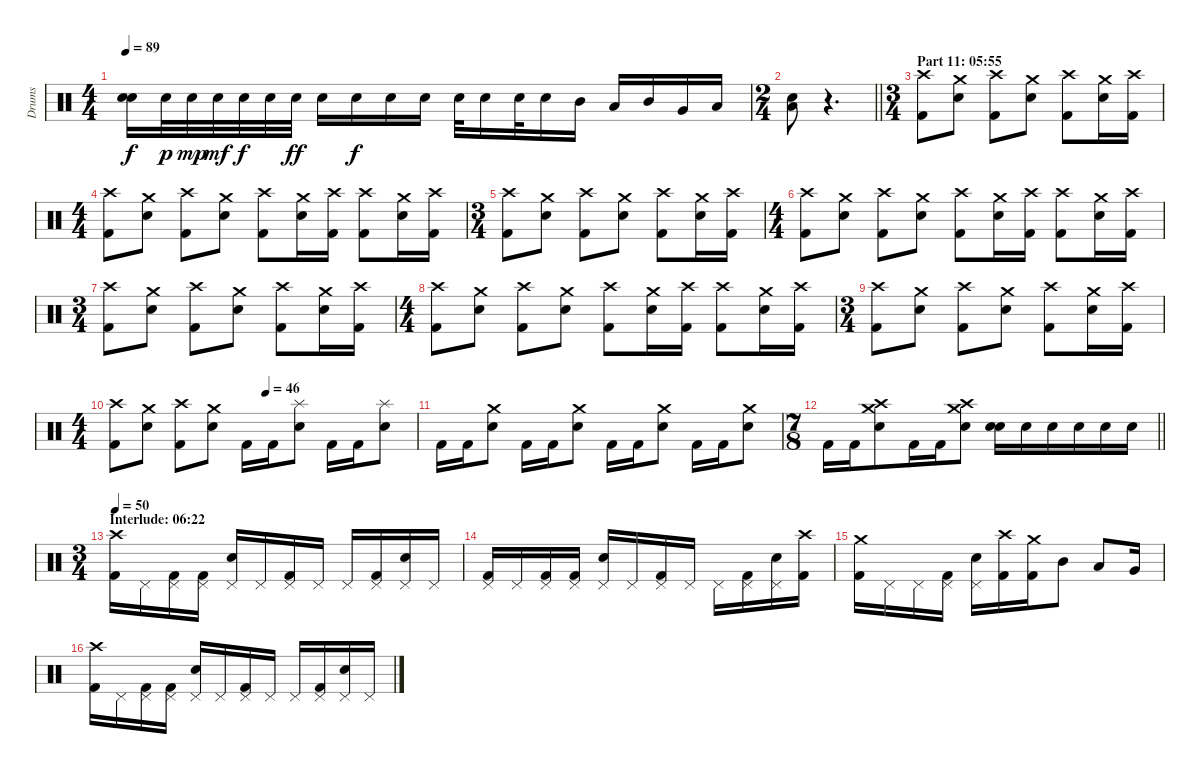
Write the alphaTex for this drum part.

\track ("Drums" "Drums") {instrument percussion}
\staff {score}
\articulation defaults
\ts (4 4)
\tempo 89
\clef neutral
\ks c
("Electric Snare (hit)" "Electric Snare (hit)").16{bd 30 dy f} "Electric Snare (hit)".32{dy p} "Electric Snare (hit)".32{dy mp} "Electric Snare (hit)".32{dy mf} "Electric Snare (hit)".32{dy f} "Electric Snare (hit)".32 "Electric Snare (hit)".32{dy ff} "Electric Snare (hit)".16 "Electric Snare (hit)".16{dy f} "Electric Snare (hit)".16 "Electric Snare (hit)".16 "Electric Snare (hit)".32 "Electric Snare (hit)".16 "Electric Snare (hit)".32 "Electric Snare (hit)".16 "Mid Tom (hit)".16 "Low Tom (hit)".16 "Mid Tom (hit)".16 "Very Low Tom (hit)".16 "Low Floor Tom (hit)".16 |
\ts (2 4)
\barLineRight lightlight
("Electric Snare (hit)" "Low Floor Tom (hit)").8 r.4{d} |
\ts (3 4)
\section ("" "Part 11: 05:55")
("Crash high (hit)" "Kick (hit) 2").8 ("Crash medium (hit)" "Electric Snare (hit)").8 ("Crash high (hit)" "Kick (hit) 2").8 ("Crash medium (hit)" "Electric Snare (hit)").8 ("Crash high (hit)" "Kick (hit) 2").8 ("Crash medium (hit)" "Electric Snare (hit)").16 ("Crash high (hit)" "Kick (hit) 2").16 |
\ts (4 4)
("Crash high (hit)" "Kick (hit) 2").8 ("Crash medium (hit)" "Electric Snare (hit)").8 ("Crash high (hit)" "Kick (hit) 2").8 ("Crash medium (hit)" "Electric Snare (hit)").8 ("Crash high (hit)" "Kick (hit) 2").8 ("Crash medium (hit)" "Electric Snare (hit)").16 ("Crash high (hit)" "Kick (hit) 2").16 ("Crash high (hit)" "Kick (hit) 2").8 ("Crash medium (hit)" "Electric Snare (hit)").16 ("Crash high (hit)" "Kick (hit) 2").16 |
\ts (3 4)
("Crash high (hit)" "Kick (hit) 2").8 ("Crash medium (hit)" "Electric Snare (hit)").8 ("Crash high (hit)" "Kick (hit) 2").8 ("Crash medium (hit)" "Electric Snare (hit)").8 ("Crash high (hit)" "Kick (hit) 2").8 ("Crash medium (hit)" "Electric Snare (hit)").16 ("Crash high (hit)" "Kick (hit) 2").16 |
\ts (4 4)
("Crash high (hit)" "Kick (hit) 2").8 ("Crash medium (hit)" "Electric Snare (hit)").8 ("Crash high (hit)" "Kick (hit) 2").8 ("Crash medium (hit)" "Electric Snare (hit)").8 ("Crash high (hit)" "Kick (hit) 2").8 ("Crash medium (hit)" "Electric Snare (hit)").16 ("Crash high (hit)" "Kick (hit) 2").16 ("Crash high (hit)" "Kick (hit) 2").8 ("Crash medium (hit)" "Electric Snare (hit)").16 ("Crash high (hit)" "Kick (hit) 2").16 |
\ts (3 4)
("Crash high (hit)" "Kick (hit) 2").8 ("Crash medium (hit)" "Electric Snare (hit)").8 ("Crash high (hit)" "Kick (hit) 2").8 ("Crash medium (hit)" "Electric Snare (hit)").8 ("Crash high (hit)" "Kick (hit) 2").8 ("Crash medium (hit)" "Electric Snare (hit)").16 ("Crash high (hit)" "Kick (hit) 2").16 |
\ts (4 4)
("Crash high (hit)" "Kick (hit) 2").8 ("Crash medium (hit)" "Electric Snare (hit)").8 ("Crash high (hit)" "Kick (hit) 2").8 ("Crash medium (hit)" "Electric Snare (hit)").8 ("Crash high (hit)" "Kick (hit) 2").8 ("Crash medium (hit)" "Electric Snare (hit)").16 ("Crash high (hit)" "Kick (hit) 2").16 ("Crash high (hit)" "Kick (hit) 2").8 ("Crash medium (hit)" "Electric Snare (hit)").16 ("Crash high (hit)" "Kick (hit) 2").16 |
\ts (3 4)
("Crash high (hit)" "Kick (hit) 2").8 ("Crash medium (hit)" "Electric Snare (hit)").8 ("Crash high (hit)" "Kick (hit) 2").8 ("Crash medium (hit)" "Electric Snare (hit)").8 ("Crash high (hit)" "Kick (hit) 2").8 ("Crash medium (hit)" "Electric Snare (hit)").16 ("Crash high (hit)" "Kick (hit) 2").16 |
\ts (4 4)
\tempo (46 0.5)
("Crash high (hit)" "Kick (hit) 2").8 ("Crash medium (hit)" "Electric Snare (hit)").8 ("Crash high (hit)" "Kick (hit) 2").8 ("Crash medium (hit)" "Electric Snare (hit)").8 "Kick (hit) 2".16 "Kick (hit) 2".16 ("Splash (hit)" "Electric Snare (hit)").8 "Kick (hit) 2".16 "Kick (hit) 2".16 ("Splash (hit)" "Electric Snare (hit)").8 |
"Kick (hit) 2".16 "Kick (hit) 2".16 ("Crash medium (hit)" "Electric Snare (hit)").8 "Kick (hit) 2".16 "Kick (hit) 2".16 ("Crash medium (hit)" "Electric Snare (hit)").8 "Kick (hit) 2".16 "Kick (hit) 2".16 ("Crash medium (hit)" "Electric Snare (hit)").8 "Kick (hit) 2".16 "Kick (hit) 2".16 ("Crash medium (hit)" "Electric Snare (hit)").8 |
\ts (7 8)
\barLineRight lightlight "Kick (hit) 2".16 "Kick (hit) 2".16
("Crash medium (hit)" "Crash high (hit)" "Electric Snare (hit)").8 "Kick (hit) 2".16 "Kick (hit) 2".16 ("Crash medium (hit)" "Crash high (hit)" "Electric Snare (hit)").8 ("Electric Snare (hit)" "Electric Snare (hit)").16{bd 30} "Electric Snare (hit)".16 "Electric Snare (hit)".16 "Electric Snare (hit)".16 "Electric Snare (hit)".16 "Electric Snare (hit)".16 |
\ts (3 4)
\section ("" "Interlude: 06:22")
\tempo 50
("Crash high (hit)" "Kick (hit) 2").16 "Pedal Hi-Hat (hit)".16 ("Pedal Hi-Hat (hit)" "Kick (hit) 2").16 ("Pedal Hi-Hat (hit)" "Kick (hit) 2").16 ("Pedal Hi-Hat (hit)" "Electric Snare (hit)").16 "Pedal Hi-Hat (hit)".16 ("Pedal Hi-Hat (hit)" "Kick (hit) 2").16 "Pedal Hi-Hat (hit)".16 "Pedal Hi-Hat (hit)".16 ("Pedal Hi-Hat (hit)" "Kick (hit) 2").16 ("Pedal Hi-Hat (hit)" "Electric Snare (hit)").16 "Pedal Hi-Hat (hit)".16 |
("Pedal Hi-Hat (hit)" "Kick (hit) 2").16 "Pedal Hi-Hat (hit)".16 ("Pedal Hi-Hat (hit)" "Kick (hit) 2").16 ("Pedal Hi-Hat (hit)" "Kick (hit) 2").16 ("Pedal Hi-Hat (hit)" "Electric Snare (hit)").16 "Pedal Hi-Hat (hit)".16 ("Pedal Hi-Hat (hit)" "Kick (hit) 2").16 "Pedal Hi-Hat (hit)".16 "Pedal Hi-Hat (hit)".16 ("Pedal Hi-Hat (hit)" "Kick (hit) 2").16 ("Pedal Hi-Hat (hit)" "Electric Snare (hit)").16 ("Crash high (hit)" "Kick (hit) 2").16 |
("Crash medium (hit)" "Kick (hit) 2").16 "Pedal Hi-Hat (hit)".16 "Pedal Hi-Hat (hit)".16 ("Pedal Hi-Hat (hit)" "Kick (hit) 2").16 ("Pedal Hi-Hat (hit)" "Electric Snare (hit)").16 ("Crash high (hit)" "Kick (hit) 2").16 ("Crash medium (hit)" "Kick (hit) 2").16 "Mid Tom (hit)".8 "Low Tom (hit)".8 "Very Low Tom (hit)".16 |
("Crash high (hit)" "Kick (hit) 2").16 "Pedal Hi-Hat (hit)".16 ("Pedal Hi-Hat (hit)" "Kick (hit) 2").16 ("Pedal Hi-Hat (hit)" "Kick (hit) 2").16 ("Pedal Hi-Hat (hit)" "Electric Snare (hit)").16 "Pedal Hi-Hat (hit)".16 ("Pedal Hi-Hat (hit)" "Kick (hit) 2").16 "Pedal Hi-Hat (hit)".16 "Pedal Hi-Hat (hit)".16 ("Pedal Hi-Hat (hit)" "Kick (hit) 2").16 ("Pedal Hi-Hat (hit)" "Electric Snare (hit)").16 "Pedal Hi-Hat (hit)".16
